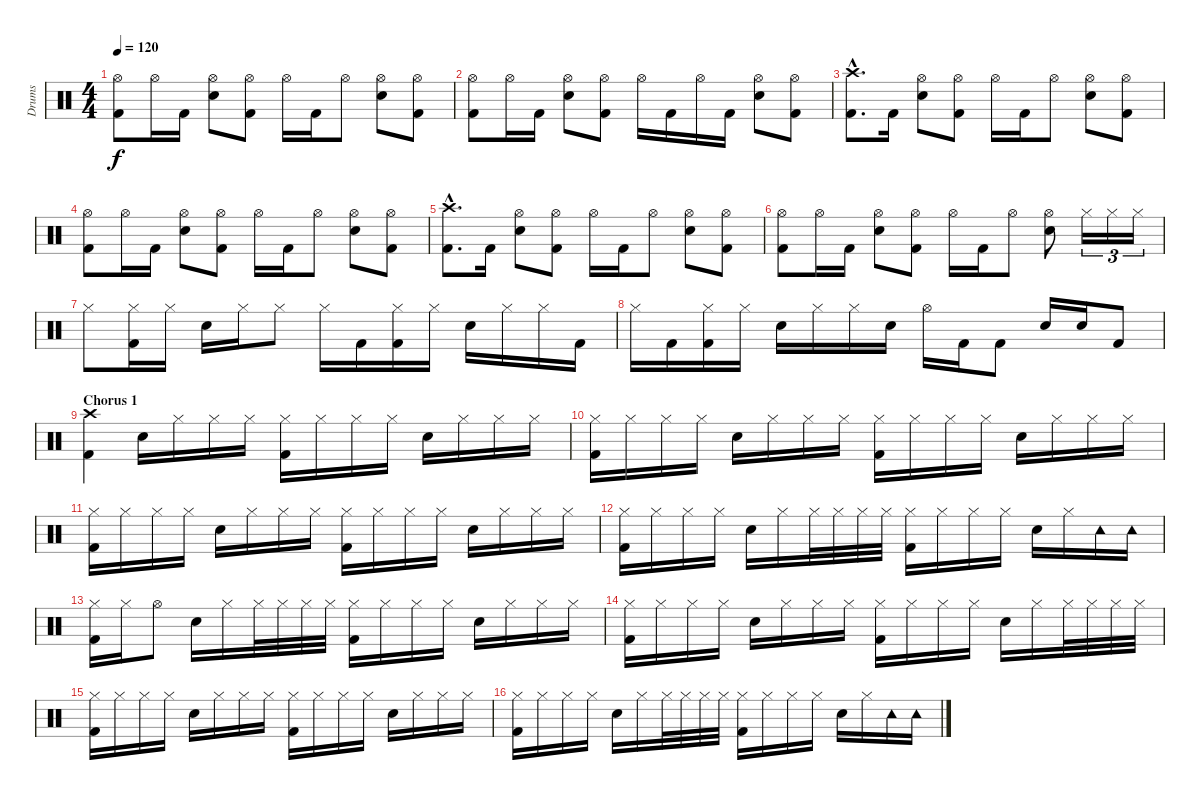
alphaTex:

\track ("Drums" "Drums") {instrument percussion}
\staff {score}
\articulation defaults
\ts (4 4)
\tempo 120
\clef neutral
\ks c
("Hi-Hat (open)" "Kick (hit) 2").8{dy f} "Hi-Hat (open)".16 "Kick (hit) 2".16 ("Hi-Hat (open)" "Electric Snare (hit)").8 ("Hi-Hat (open)" "Kick (hit) 2").8 "Hi-Hat (open)".16 "Kick (hit) 2".16 "Hi-Hat (open)".8 ("Hi-Hat (open)" "Electric Snare (hit)").8 ("Hi-Hat (open)" "Kick (hit) 2").8 |
("Hi-Hat (open)" "Kick (hit) 2").8 "Hi-Hat (open)".16 "Kick (hit) 2".16 ("Hi-Hat (open)" "Electric Snare (hit)").8 ("Hi-Hat (open)" "Kick (hit) 2").8 "Hi-Hat (open)".16 "Kick (hit) 2".16 "Hi-Hat (open)".16 "Kick (hit) 2".16 ("Hi-Hat (open)" "Electric Snare (hit)").8 ("Hi-Hat (open)" "Kick (hit) 2").8 |
("Crash high (hit)"{hac} "Kick (hit) 2"{hac}).8{d} "Kick (hit) 2".16 ("Hi-Hat (open)" "Electric Snare (hit)").8 ("Hi-Hat (open)" "Kick (hit) 2").8 "Hi-Hat (open)".16 "Kick (hit) 2".16 "Hi-Hat (open)".8 ("Hi-Hat (open)" "Electric Snare (hit)").8 ("Hi-Hat (open)" "Kick (hit) 2").8 |
("Hi-Hat (open)" "Kick (hit) 2").8 "Hi-Hat (open)".16 "Kick (hit) 2".16 ("Hi-Hat (open)" "Electric Snare (hit)").8 ("Hi-Hat (open)" "Kick (hit) 2").8 "Hi-Hat (open)".16 "Kick (hit) 2".16 "Hi-Hat (open)".8 ("Hi-Hat (open)" "Electric Snare (hit)").8 ("Hi-Hat (open)" "Kick (hit) 2").8 |
("Crash high (hit)"{hac} "Kick (hit) 2"{hac}).8{d} "Kick (hit) 2".16 ("Hi-Hat (open)" "Electric Snare (hit)").8 ("Hi-Hat (open)" "Kick (hit) 2").8 "Hi-Hat (open)".16 "Kick (hit) 2".16 "Hi-Hat (open)".8 ("Hi-Hat (open)" "Electric Snare (hit)").8 ("Hi-Hat (open)" "Kick (hit) 2").8 |
("Hi-Hat (open)" "Kick (hit) 2").8 "Hi-Hat (open)".16 "Kick (hit) 2".16 ("Hi-Hat (open)" "Electric Snare (hit)").8 ("Hi-Hat (open)" "Kick (hit) 2").8 "Hi-Hat (open)".16 "Kick (hit) 2".16 "Hi-Hat (open)".8 ("Hi-Hat (open)" "Electric Snare (hit)").8 "Hi-Hat (closed)".16{tu (3 2)} "Hi-Hat (closed)".16{tu (3 2)} "Hi-Hat (closed)".16{tu (3 2)} |
"Hi-Hat (closed)".8 ("Hi-Hat (closed)" "Kick (hit) 2").16 "Hi-Hat (closed)".16 "Electric Snare (hit)".16 "Hi-Hat (closed)".16 "Hi-Hat (closed)".8 "Hi-Hat (closed)".16 "Kick (hit) 2".16 ("Hi-Hat (closed)" "Kick (hit) 2").16 "Hi-Hat (closed)".16 "Electric Snare (hit)".16 "Hi-Hat (closed)".16 "Hi-Hat (closed)".16 "Kick (hit) 2".16 |
"Hi-Hat (closed)".16 "Kick (hit) 2".16 ("Hi-Hat (closed)" "Kick (hit) 2").16 "Hi-Hat (closed)".16 "Electric Snare (hit)".16 "Hi-Hat (closed)".16 "Hi-Hat (closed)".16 "Electric Snare (hit)".16 "Hi-Hat (open)".16 "Kick (hit) 2".16 "Kick (hit) 2".8 "Electric Snare (hit)".16 "Electric Snare (hit)".16 "Kick (hit) 2".8 |
\section ("" "Chorus 1")
("Crash high (hit)" "Kick (hit) 2").4 "Electric Snare (hit)".16 "Hi-Hat (closed)".16 "Hi-Hat (closed)".16 "Hi-Hat (closed)".16 ("Hi-Hat (closed)" "Kick (hit) 2").16 "Hi-Hat (closed)".16 "Hi-Hat (closed)".16 "Hi-Hat (closed)".16 "Electric Snare (hit)".16 "Hi-Hat (closed)".16 "Hi-Hat (closed)".16 "Hi-Hat (closed)".16 |
("Hi-Hat (closed)" "Kick (hit) 2").16 "Hi-Hat (closed)".16 "Hi-Hat (closed)".16 "Hi-Hat (closed)".16 "Electric Snare (hit)".16 "Hi-Hat (closed)".16 "Hi-Hat (closed)".16 "Hi-Hat (closed)".16 ("Hi-Hat (closed)" "Kick (hit) 2").16 "Hi-Hat (closed)".16 "Hi-Hat (closed)".16 "Hi-Hat (closed)".16 "Electric Snare (hit)".16 "Hi-Hat (closed)".16 "Hi-Hat (closed)".16 "Hi-Hat (closed)".16 |
("Hi-Hat (closed)" "Kick (hit) 2").16 "Hi-Hat (closed)".16 "Hi-Hat (closed)".16 "Hi-Hat (closed)".16 "Electric Snare (hit)".16 "Hi-Hat (closed)".16 "Hi-Hat (closed)".16 "Hi-Hat (closed)".16 ("Hi-Hat (closed)" "Kick (hit) 2").16 "Hi-Hat (closed)".16 "Hi-Hat (closed)".16 "Hi-Hat (closed)".16 "Electric Snare (hit)".16 "Hi-Hat (closed)".16 "Hi-Hat (closed)".16 "Hi-Hat (closed)".16 |
("Hi-Hat (closed)" "Kick (hit) 2").16 "Hi-Hat (closed)".16 "Hi-Hat (closed)".16 "Hi-Hat (closed)".16 "Electric Snare (hit)".16 "Hi-Hat (closed)".16 "Hi-Hat (closed)".32 "Hi-Hat (closed)".32 "Hi-Hat (closed)".32 "Hi-Hat (closed)".32 ("Hi-Hat (closed)" "Kick (hit) 2").16 "Hi-Hat (closed)".16 "Hi-Hat (closed)".16 "Hi-Hat (closed)".16 "Electric Snare (hit)".16 "Hi-Hat (closed)".16 "Tambourine (hit)".16 "Tambourine (hit)".16 |
("Hi-Hat (closed)" "Kick (hit) 2").16 "Hi-Hat (closed)".16 "Hi-Hat (open)".8 "Electric Snare (hit)".16 "Hi-Hat (closed)".16 "Hi-Hat (closed)".32 "Hi-Hat (closed)".32 "Hi-Hat (closed)".32 "Hi-Hat (closed)".32 ("Hi-Hat (closed)" "Kick (hit) 2").16 "Hi-Hat (closed)".16 "Hi-Hat (closed)".16 "Hi-Hat (closed)".16 "Electric Snare (hit)".16 "Hi-Hat (closed)".16 "Hi-Hat (closed)".16 "Hi-Hat (closed)".16 |
("Hi-Hat (closed)" "Kick (hit) 2").16 "Hi-Hat (closed)".16 "Hi-Hat (closed)".16 "Hi-Hat (closed)".16 "Electric Snare (hit)".16 "Hi-Hat (closed)".16 "Hi-Hat (closed)".16 "Hi-Hat (closed)".16 ("Hi-Hat (closed)" "Kick (hit) 2").16 "Hi-Hat (closed)".16 "Hi-Hat (closed)".16 "Hi-Hat (closed)".16 "Electric Snare (hit)".16 "Hi-Hat (closed)".16 "Hi-Hat (closed)".32 "Hi-Hat (closed)".32 "Hi-Hat (closed)".32 "Hi-Hat (closed)".32 |
("Hi-Hat (closed)" "Kick (hit) 2").16 "Hi-Hat (closed)".16 "Hi-Hat (closed)".16 "Hi-Hat (closed)".16 "Electric Snare (hit)".16 "Hi-Hat (closed)".16 "Hi-Hat (closed)".16 "Hi-Hat (closed)".16 ("Hi-Hat (closed)" "Kick (hit) 2").16 "Hi-Hat (closed)".16 "Hi-Hat (closed)".16 "Hi-Hat (closed)".16 "Electric Snare (hit)".16 "Hi-Hat (closed)".16 "Hi-Hat (closed)".16 "Hi-Hat (closed)".16 |
("Hi-Hat (closed)" "Kick (hit) 2").16 "Hi-Hat (closed)".16 "Hi-Hat (closed)".16 "Hi-Hat (closed)".16 "Electric Snare (hit)".16 "Hi-Hat (closed)".16 "Hi-Hat (closed)".32 "Hi-Hat (closed)".32 "Hi-Hat (closed)".32 "Hi-Hat (closed)".32 ("Hi-Hat (closed)" "Kick (hit) 2").16 "Hi-Hat (closed)".16 "Hi-Hat (closed)".16 "Hi-Hat (closed)".16 "Electric Snare (hit)".16 "Hi-Hat (closed)".16 "Tambourine (hit)".16 "Tambourine (hit)".16
